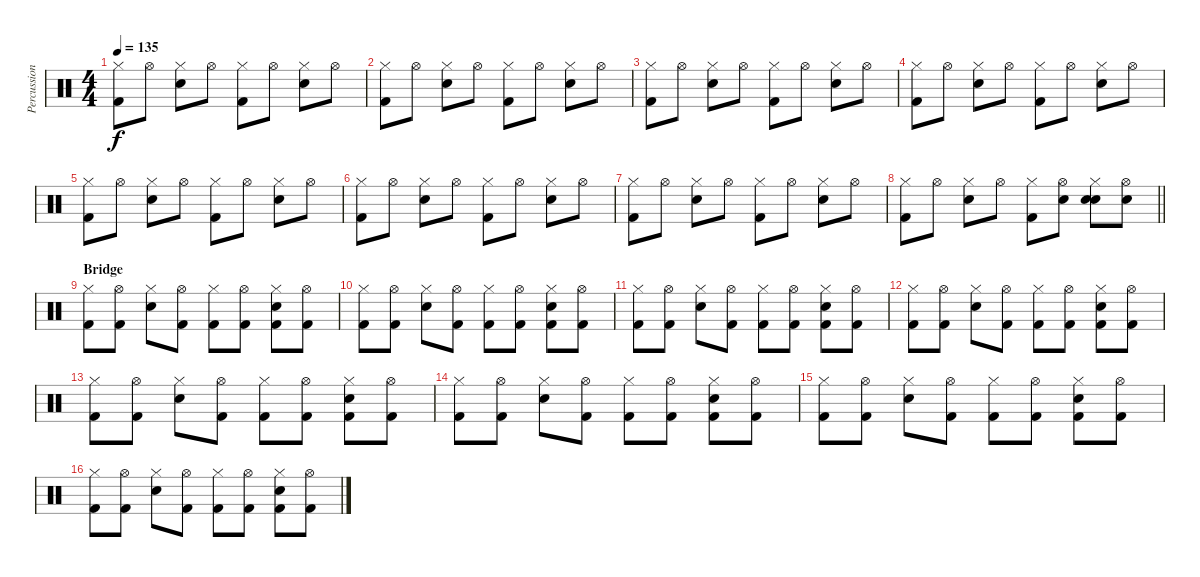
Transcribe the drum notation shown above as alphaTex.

\track ("Percussion" "Percussion") {instrument percussion}
\staff {score}
\articulation defaults
\ts (4 4)
\tempo 135
\clef neutral
\ks c
("Hi-Hat (closed)" "Kick (hit) 2").8{dy f} "Hi-Hat (open)".8 ("Hi-Hat (closed)" "Snare (hit) 2").8 "Hi-Hat (open)".8 ("Hi-Hat (closed)" "Kick (hit) 2").8 "Hi-Hat (open)".8 ("Hi-Hat (closed)" "Snare (hit) 2").8 "Hi-Hat (open)".8 |
("Hi-Hat (closed)" "Kick (hit) 2").8 "Hi-Hat (open)".8 ("Hi-Hat (closed)" "Snare (hit) 2").8 "Hi-Hat (open)".8 ("Hi-Hat (closed)" "Kick (hit) 2").8 "Hi-Hat (open)".8 ("Hi-Hat (closed)" "Snare (hit) 2").8 "Hi-Hat (open)".8 |
("Hi-Hat (closed)" "Kick (hit) 2").8 "Hi-Hat (open)".8 ("Hi-Hat (closed)" "Snare (hit) 2").8 "Hi-Hat (open)".8 ("Hi-Hat (closed)" "Kick (hit) 2").8 "Hi-Hat (open)".8 ("Hi-Hat (closed)" "Snare (hit) 2").8 "Hi-Hat (open)".8 |
("Hi-Hat (closed)" "Kick (hit) 2").8 "Hi-Hat (open)".8 ("Hi-Hat (closed)" "Snare (hit) 2").8 "Hi-Hat (open)".8 ("Hi-Hat (closed)" "Kick (hit) 2").8 "Hi-Hat (open)".8 ("Hi-Hat (closed)" "Snare (hit) 2").8 "Hi-Hat (open)".8 |
("Hi-Hat (closed)" "Kick (hit) 2").8 "Hi-Hat (open)".8 ("Hi-Hat (closed)" "Snare (hit) 2").8 "Hi-Hat (open)".8 ("Hi-Hat (closed)" "Kick (hit) 2").8 "Hi-Hat (open)".8 ("Hi-Hat (closed)" "Snare (hit) 2").8 "Hi-Hat (open)".8 |
("Hi-Hat (closed)" "Kick (hit) 2").8 "Hi-Hat (open)".8 ("Hi-Hat (closed)" "Snare (hit) 2").8 "Hi-Hat (open)".8 ("Hi-Hat (closed)" "Kick (hit) 2").8 "Hi-Hat (open)".8 ("Hi-Hat (closed)" "Snare (hit) 2").8 "Hi-Hat (open)".8 |
("Hi-Hat (closed)" "Kick (hit) 2").8 "Hi-Hat (open)".8 ("Hi-Hat (closed)" "Snare (hit) 2").8 "Hi-Hat (open)".8 ("Hi-Hat (closed)" "Kick (hit) 2").8 "Hi-Hat (open)".8 ("Hi-Hat (closed)" "Snare (hit) 2").8 "Hi-Hat (open)".8 |
\barLineRight lightlight
("Hi-Hat (closed)" "Kick (hit) 2").8 "Hi-Hat (open)".8 ("Hi-Hat (closed)" "Snare (hit) 2").8 "Hi-Hat (open)".8 ("Hi-Hat (closed)" "Kick (hit) 2").8 ("Electric Snare (hit)" "Hi-Hat (open)").8 ("Electric Snare (hit)" "Hi-Hat (closed)" "Snare (hit) 2").8 ("Electric Snare (hit)" "Hi-Hat (open)").8 |
\section ("" "Bridge")
("Hi-Hat (closed)" "Kick (hit) 2").8 ("Hi-Hat (open)" "Kick (hit) 2").8 ("Hi-Hat (closed)" "Snare (hit) 2").8 ("Hi-Hat (open)" "Kick (hit) 2").8 ("Hi-Hat (closed)" "Kick (hit) 2").8 ("Hi-Hat (open)" "Kick (hit) 2").8 ("Snare (hit) 2" "Hi-Hat (closed)" "Kick (hit) 2").8 ("Hi-Hat (open)" "Kick (hit) 2").8 |
("Hi-Hat (closed)" "Kick (hit) 2").8 ("Hi-Hat (open)" "Kick (hit) 2").8 ("Hi-Hat (closed)" "Snare (hit) 2").8 ("Hi-Hat (open)" "Kick (hit) 2").8 ("Hi-Hat (closed)" "Kick (hit) 2").8 ("Hi-Hat (open)" "Kick (hit) 2").8 ("Snare (hit) 2" "Hi-Hat (closed)" "Kick (hit) 2").8 ("Hi-Hat (open)" "Kick (hit) 2").8 |
("Hi-Hat (closed)" "Kick (hit) 2").8 ("Hi-Hat (open)" "Kick (hit) 2").8 ("Hi-Hat (closed)" "Snare (hit) 2").8 ("Hi-Hat (open)" "Kick (hit) 2").8 ("Hi-Hat (closed)" "Kick (hit) 2").8 ("Hi-Hat (open)" "Kick (hit) 2").8 ("Snare (hit) 2" "Hi-Hat (closed)" "Kick (hit) 2").8 ("Hi-Hat (open)" "Kick (hit) 2").8 |
("Hi-Hat (closed)" "Kick (hit) 2").8 ("Hi-Hat (open)" "Kick (hit) 2").8 ("Hi-Hat (closed)" "Snare (hit) 2").8 ("Hi-Hat (open)" "Kick (hit) 2").8 ("Hi-Hat (closed)" "Kick (hit) 2").8 ("Hi-Hat (open)" "Kick (hit) 2").8 ("Snare (hit) 2" "Hi-Hat (closed)" "Kick (hit) 2").8 ("Hi-Hat (open)" "Kick (hit) 2").8 |
("Hi-Hat (closed)" "Kick (hit) 2").8 ("Hi-Hat (open)" "Kick (hit) 2").8 ("Hi-Hat (closed)" "Snare (hit) 2").8 ("Hi-Hat (open)" "Kick (hit) 2").8 ("Hi-Hat (closed)" "Kick (hit) 2").8 ("Hi-Hat (open)" "Kick (hit) 2").8 ("Snare (hit) 2" "Hi-Hat (closed)" "Kick (hit) 2").8 ("Hi-Hat (open)" "Kick (hit) 2").8 |
("Hi-Hat (closed)" "Kick (hit) 2").8 ("Hi-Hat (open)" "Kick (hit) 2").8 ("Hi-Hat (closed)" "Snare (hit) 2").8 ("Hi-Hat (open)" "Kick (hit) 2").8 ("Hi-Hat (closed)" "Kick (hit) 2").8 ("Hi-Hat (open)" "Kick (hit) 2").8 ("Snare (hit) 2" "Hi-Hat (closed)" "Kick (hit) 2").8 ("Hi-Hat (open)" "Kick (hit) 2").8 |
("Hi-Hat (closed)" "Kick (hit) 2").8 ("Hi-Hat (open)" "Kick (hit) 2").8 ("Hi-Hat (closed)" "Snare (hit) 2").8 ("Hi-Hat (open)" "Kick (hit) 2").8 ("Hi-Hat (closed)" "Kick (hit) 2").8 ("Hi-Hat (open)" "Kick (hit) 2").8 ("Snare (hit) 2" "Hi-Hat (closed)" "Kick (hit) 2").8 ("Hi-Hat (open)" "Kick (hit) 2").8 |
("Hi-Hat (closed)" "Kick (hit) 2").8 ("Hi-Hat (open)" "Kick (hit) 2").8 ("Hi-Hat (closed)" "Snare (hit) 2").8 ("Hi-Hat (open)" "Kick (hit) 2").8 ("Hi-Hat (closed)" "Kick (hit) 2").8 ("Hi-Hat (open)" "Kick (hit) 2").8 ("Snare (hit) 2" "Hi-Hat (closed)" "Kick (hit) 2").8 ("Hi-Hat (open)" "Kick (hit) 2").8
